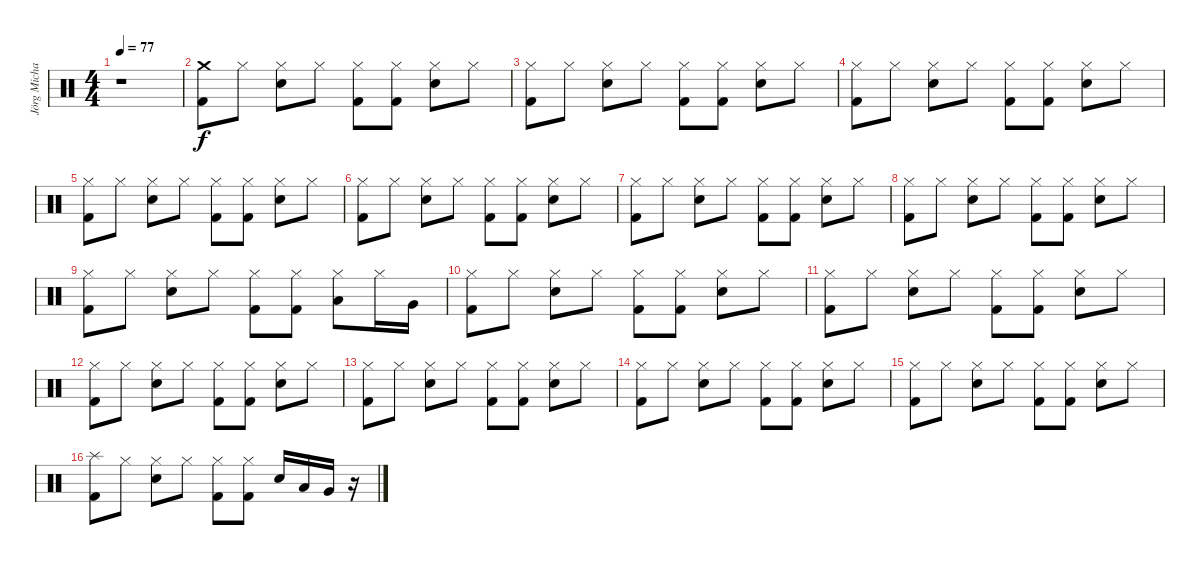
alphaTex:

\track ("Jörg Michael" "Jörg Micha") {instrument percussion}
\staff {score}
\articulation defaults
\ts (4 4)
\tempo 77
\clef neutral
\ks c
r.1{dy f} |
("Crash medium (hit)" "Kick (hit) 2").8 "Hi-Hat (closed)".8 ("Hi-Hat (closed)" "Electric Snare (hit)").8 "Hi-Hat (closed)".8 ("Hi-Hat (closed)" "Kick (hit) 2").8 ("Hi-Hat (closed)" "Kick (hit) 2").8 ("Hi-Hat (closed)" "Electric Snare (hit)").8 "Hi-Hat (closed)".8 |
("Hi-Hat (closed)" "Kick (hit) 2").8 "Hi-Hat (closed)".8 ("Hi-Hat (closed)" "Electric Snare (hit)").8 "Hi-Hat (closed)".8 ("Hi-Hat (closed)" "Kick (hit) 2").8 ("Hi-Hat (closed)" "Kick (hit) 2").8 ("Hi-Hat (closed)" "Electric Snare (hit)").8 "Hi-Hat (closed)".8 |
("Hi-Hat (closed)" "Kick (hit) 2").8 "Hi-Hat (closed)".8 ("Hi-Hat (closed)" "Electric Snare (hit)").8 "Hi-Hat (closed)".8 ("Hi-Hat (closed)" "Kick (hit) 2").8 ("Hi-Hat (closed)" "Kick (hit) 2").8 ("Hi-Hat (closed)" "Electric Snare (hit)").8 "Hi-Hat (closed)".8 |
("Hi-Hat (closed)" "Kick (hit) 2").8 "Hi-Hat (closed)".8 ("Hi-Hat (closed)" "Electric Snare (hit)").8 "Hi-Hat (closed)".8 ("Hi-Hat (closed)" "Kick (hit) 2").8 ("Hi-Hat (closed)" "Kick (hit) 2").8 ("Hi-Hat (closed)" "Electric Snare (hit)").8 "Hi-Hat (closed)".8 |
("Hi-Hat (closed)" "Kick (hit) 2").8 "Hi-Hat (closed)".8 ("Hi-Hat (closed)" "Electric Snare (hit)").8 "Hi-Hat (closed)".8 ("Hi-Hat (closed)" "Kick (hit) 2").8 ("Hi-Hat (closed)" "Kick (hit) 2").8 ("Hi-Hat (closed)" "Electric Snare (hit)").8 "Hi-Hat (closed)".8 |
("Hi-Hat (closed)" "Kick (hit) 2").8 "Hi-Hat (closed)".8 ("Hi-Hat (closed)" "Electric Snare (hit)").8 "Hi-Hat (closed)".8 ("Hi-Hat (closed)" "Kick (hit) 2").8 ("Hi-Hat (closed)" "Kick (hit) 2").8 ("Hi-Hat (closed)" "Electric Snare (hit)").8 "Hi-Hat (closed)".8 |
("Hi-Hat (closed)" "Kick (hit) 2").8 "Hi-Hat (closed)".8 ("Hi-Hat (closed)" "Electric Snare (hit)").8 "Hi-Hat (closed)".8 ("Hi-Hat (closed)" "Kick (hit) 2").8 ("Hi-Hat (closed)" "Kick (hit) 2").8 ("Hi-Hat (closed)" "Electric Snare (hit)").8 "Hi-Hat (closed)".8 |
("Hi-Hat (closed)" "Kick (hit) 2").8 "Hi-Hat (closed)".8 ("Hi-Hat (closed)" "Electric Snare (hit)").8 "Hi-Hat (closed)".8 ("Hi-Hat (closed)" "Kick (hit) 2").8 ("Hi-Hat (closed)" "Kick (hit) 2").8 ("Hi-Hat (closed)" "Low Tom (hit)").8 "Hi-Hat (closed)".16 "Very Low Tom (hit)".16 |
("Hi-Hat (closed)" "Kick (hit) 2").8 "Hi-Hat (closed)".8 ("Hi-Hat (closed)" "Electric Snare (hit)").8 "Hi-Hat (closed)".8 ("Hi-Hat (closed)" "Kick (hit) 2").8 ("Hi-Hat (closed)" "Kick (hit) 2").8 ("Hi-Hat (closed)" "Electric Snare (hit)").8 "Hi-Hat (closed)".8 |
("Hi-Hat (closed)" "Kick (hit) 2").8 "Hi-Hat (closed)".8 ("Hi-Hat (closed)" "Electric Snare (hit)").8 "Hi-Hat (closed)".8 ("Hi-Hat (closed)" "Kick (hit) 2").8 ("Hi-Hat (closed)" "Kick (hit) 2").8 ("Hi-Hat (closed)" "Electric Snare (hit)").8 "Hi-Hat (closed)".8 |
("Hi-Hat (closed)" "Kick (hit) 2").8 "Hi-Hat (closed)".8 ("Hi-Hat (closed)" "Electric Snare (hit)").8 "Hi-Hat (closed)".8 ("Hi-Hat (closed)" "Kick (hit) 2").8 ("Hi-Hat (closed)" "Kick (hit) 2").8 ("Hi-Hat (closed)" "Electric Snare (hit)").8 "Hi-Hat (closed)".8 |
("Hi-Hat (closed)" "Kick (hit) 2").8 "Hi-Hat (closed)".8 ("Hi-Hat (closed)" "Electric Snare (hit)").8 "Hi-Hat (closed)".8 ("Hi-Hat (closed)" "Kick (hit) 2").8 ("Hi-Hat (closed)" "Kick (hit) 2").8 ("Hi-Hat (closed)" "Electric Snare (hit)").8 "Hi-Hat (closed)".8 |
("Hi-Hat (closed)" "Kick (hit) 2").8 "Hi-Hat (closed)".8 ("Hi-Hat (closed)" "Electric Snare (hit)").8 "Hi-Hat (closed)".8 ("Hi-Hat (closed)" "Kick (hit) 2").8 ("Hi-Hat (closed)" "Kick (hit) 2").8 ("Hi-Hat (closed)" "Electric Snare (hit)").8 "Hi-Hat (closed)".8 |
("Hi-Hat (closed)" "Kick (hit) 2").8 "Hi-Hat (closed)".8 ("Hi-Hat (closed)" "Electric Snare (hit)").8 "Hi-Hat (closed)".8 ("Hi-Hat (closed)" "Kick (hit) 2").8 ("Hi-Hat (closed)" "Kick (hit) 2").8 ("Hi-Hat (closed)" "Electric Snare (hit)").8 "Hi-Hat (closed)".8 |
("Splash (hit)" "Kick (hit) 2").8 "Hi-Hat (closed)".8 ("Hi-Hat (closed)" "Electric Snare (hit)").8 "Hi-Hat (closed)".8 ("Hi-Hat (closed)" "Kick (hit) 2").8 ("Hi-Hat (closed)" "Kick (hit) 2").8 "Electric Snare (hit)".16 "Low Tom (hit)".16 "Very Low Tom (hit)".16 r.16
